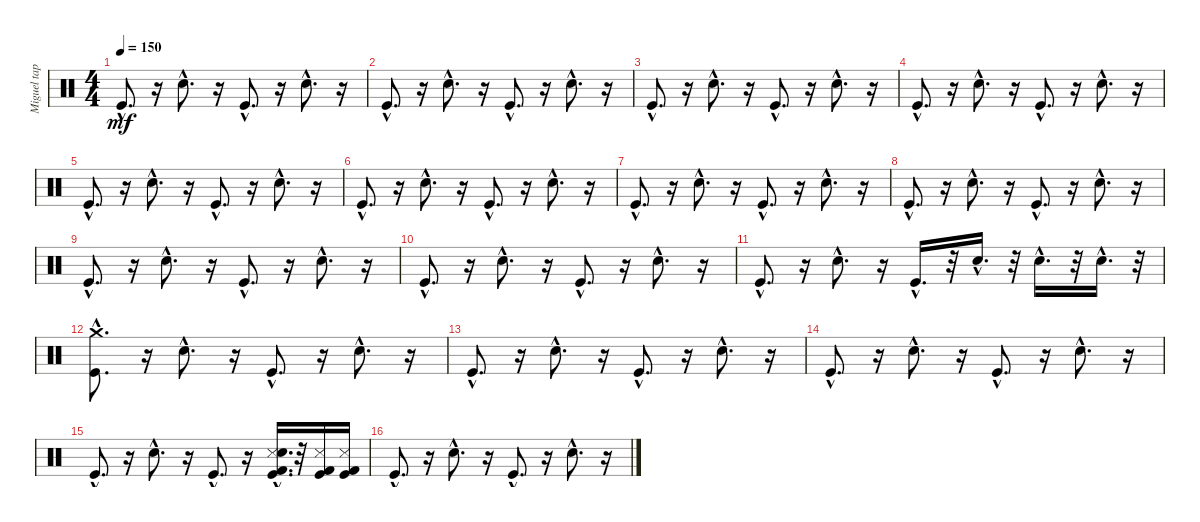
\track ("Miguel tapia" "Miguel tap") {instrument percussion}
\staff {score}
\articulation defaults
\ts (4 4)
\tempo 150
\clef neutral
\ks c "Kick (hit)"{hac}.8{d dy mf}
r.16 "Electric Snare (hit)"{hac}.8{d} r.16 "Kick (hit)"{hac}.8{d} r.16 "Electric Snare (hit)"{hac}.8{d} r.16 |
"Kick (hit)"{hac}.8{d} r.16 "Electric Snare (hit)"{hac}.8{d} r.16 "Kick (hit)"{hac}.8{d} r.16 "Electric Snare (hit)"{hac}.8{d} r.16 |
"Kick (hit)"{hac}.8{d} r.16 "Electric Snare (hit)"{hac}.8{d} r.16 "Kick (hit)"{hac}.8{d} r.16 "Electric Snare (hit)"{hac}.8{d} r.16 |
"Kick (hit)"{hac}.8{d} r.16 "Electric Snare (hit)"{hac}.8{d} r.16 "Kick (hit)"{hac}.8{d} r.16 "Electric Snare (hit)"{hac}.8{d} r.16 |
"Kick (hit)"{hac}.8{d} r.16 "Electric Snare (hit)"{hac}.8{d} r.16 "Kick (hit)"{hac}.8{d} r.16 "Electric Snare (hit)"{hac}.8{d} r.16 |
"Kick (hit)"{hac}.8{d} r.16 "Electric Snare (hit)"{hac}.8{d} r.16 "Kick (hit)"{hac}.8{d} r.16 "Electric Snare (hit)"{hac}.8{d} r.16 |
"Kick (hit)"{hac}.8{d} r.16 "Electric Snare (hit)"{hac}.8{d} r.16 "Kick (hit)"{hac}.8{d} r.16 "Electric Snare (hit)"{hac}.8{d} r.16 |
"Kick (hit)"{hac}.8{d} r.16 "Electric Snare (hit)"{hac}.8{d} r.16 "Kick (hit)"{hac}.8{d} r.16 "Electric Snare (hit)"{hac}.8{d} r.16 |
"Kick (hit)"{hac}.8{d} r.16 "Electric Snare (hit)"{hac}.8{d} r.16 "Kick (hit)"{hac}.8{d} r.16 "Electric Snare (hit)"{hac}.8{d} r.16 |
"Kick (hit)"{hac}.8{d} r.16 "Electric Snare (hit)"{hac}.8{d} r.16 "Kick (hit)"{hac}.8{d} r.16 "Electric Snare (hit)"{hac}.8{d} r.16 |
"Kick (hit)"{hac}.8{d} r.16 "Electric Snare (hit)"{hac}.8{d} r.16 "Kick (hit)"{hac}.16{d} r.32 "Electric Snare (hit)"{hac}.16{d} r.32 "Electric Snare (hit)"{hac}.16{d} r.32 "Electric Snare (hit)"{hac}.16{d} r.32 |
("Kick (hit)"{hac} "Crash medium (hit)"{hac}).8{d} r.16 "Electric Snare (hit)"{hac}.8{d} r.16 "Kick (hit)"{hac}.8{d} r.16 "Electric Snare (hit)"{hac}.8{d} r.16 |
"Kick (hit)"{hac}.8{d} r.16 "Electric Snare (hit)"{hac}.8{d} r.16 "Kick (hit)"{hac}.8{d} r.16 "Electric Snare (hit)"{hac}.8{d} r.16 |
"Kick (hit)"{hac}.8{d} r.16 "Electric Snare (hit)"{hac}.8{d} r.16 "Kick (hit)"{hac}.8{d} r.16 "Electric Snare (hit)"{hac}.8{d} r.16 |
"Kick (hit)"{hac}.8{d} r.16 "Electric Snare (hit)"{hac}.8{d} r.16 "Kick (hit)"{hac}.8{d} r.16 ("Kick (hit)"{hac} "Metronome (hit)"{hac} "Electric Snare (hit)"{hac} "Kick (hit) 2"{hac}).16{d} r.32 ("Metronome (hit)" "Kick (hit)" "Kick (hit) 2").16 ("Kick (hit) 2" "Kick (hit)" "Metronome (hit)").16 |
"Kick (hit)"{hac}.8{d} r.16 "Electric Snare (hit)"{hac}.8{d} r.16 "Kick (hit)"{hac}.8{d} r.16 "Electric Snare (hit)"{hac}.8{d} r.16
